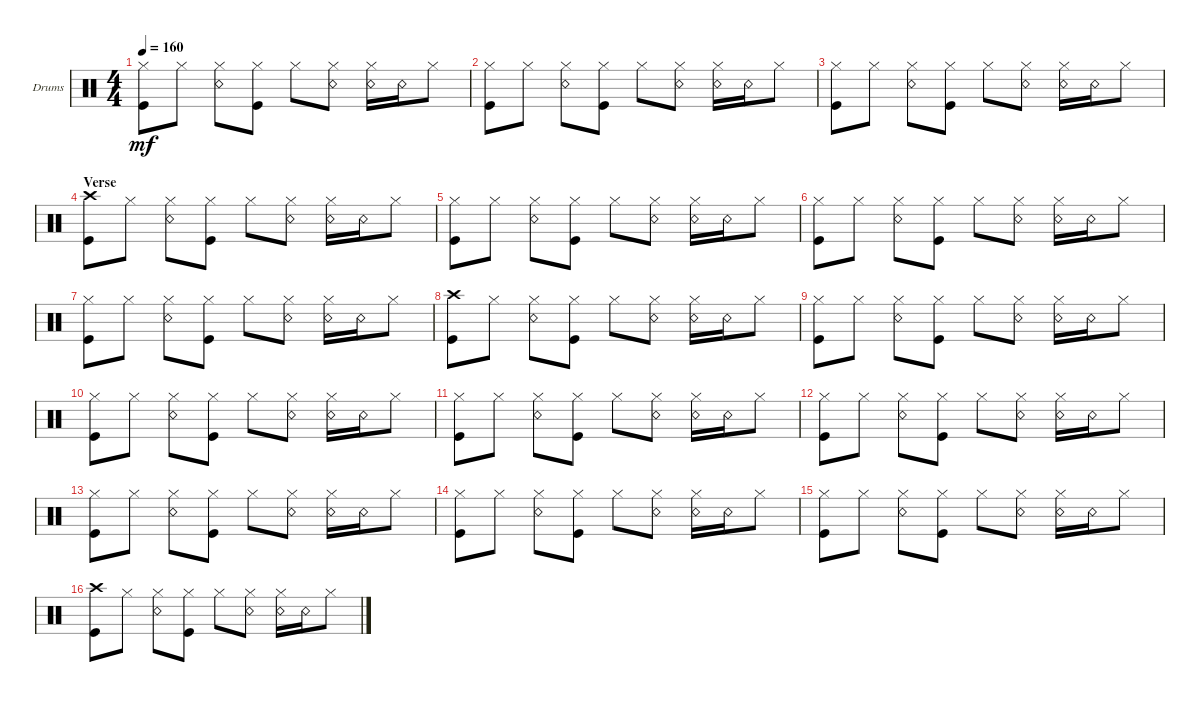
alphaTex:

\defaultSystemsLayout 4
\bracketExtendMode groupsimilarinstruments
\firstSystemTrackNameOrientation horizontal
\otherSystemsTrackNameOrientation horizontal
\track ("Drumkit" "Drums") {instrument percussion}
\staff {score}
\articulation defaults
\ts (4 4)
\tempo 160
\clef neutral
\ks c
("Kick (hit)" "Hi-Hat (closed)").8{dy mf} "Hi-Hat (closed)".8 ("Snare (rim shot)" "Hi-Hat (closed)").8 ("Hi-Hat (closed)" "Kick (hit)").8 "Hi-Hat (closed)".8 ("Snare (rim shot)" "Hi-Hat (closed)").8 ("Snare (rim shot)" "Hi-Hat (closed)").16 "Snare (rim shot)".16 "Hi-Hat (closed)".8 |
("Kick (hit)" "Hi-Hat (closed)").8 "Hi-Hat (closed)".8 ("Snare (rim shot)" "Hi-Hat (closed)").8 ("Hi-Hat (closed)" "Kick (hit)").8 "Hi-Hat (closed)".8 ("Snare (rim shot)" "Hi-Hat (closed)").8 ("Snare (rim shot)" "Hi-Hat (closed)").16 "Snare (rim shot)".16 "Hi-Hat (closed)".8 |
("Kick (hit)" "Hi-Hat (closed)").8 "Hi-Hat (closed)".8 ("Snare (rim shot)" "Hi-Hat (closed)").8 ("Hi-Hat (closed)" "Kick (hit)").8 "Hi-Hat (closed)".8 ("Snare (rim shot)" "Hi-Hat (closed)").8 ("Snare (rim shot)" "Hi-Hat (closed)").16 "Snare (rim shot)".16 "Hi-Hat (closed)".8 |
\section ("" "Verse")
("Kick (hit)" "Crash high (hit)").8 "Hi-Hat (closed)".8 ("Snare (rim shot)" "Hi-Hat (closed)").8 ("Hi-Hat (closed)" "Kick (hit)").8 "Hi-Hat (closed)".8 ("Snare (rim shot)" "Hi-Hat (closed)").8 ("Snare (rim shot)" "Hi-Hat (closed)").16 "Snare (rim shot)".16 "Hi-Hat (closed)".8 |
("Kick (hit)" "Hi-Hat (closed)").8 "Hi-Hat (closed)".8 ("Snare (rim shot)" "Hi-Hat (closed)").8 ("Hi-Hat (closed)" "Kick (hit)").8 "Hi-Hat (closed)".8 ("Snare (rim shot)" "Hi-Hat (closed)").8 ("Snare (rim shot)" "Hi-Hat (closed)").16 "Snare (rim shot)".16 "Hi-Hat (closed)".8 |
("Kick (hit)" "Hi-Hat (closed)").8 "Hi-Hat (closed)".8 ("Snare (rim shot)" "Hi-Hat (closed)").8 ("Hi-Hat (closed)" "Kick (hit)").8 "Hi-Hat (closed)".8 ("Snare (rim shot)" "Hi-Hat (closed)").8 ("Snare (rim shot)" "Hi-Hat (closed)").16 "Snare (rim shot)".16 "Hi-Hat (closed)".8 |
("Kick (hit)" "Hi-Hat (closed)").8 "Hi-Hat (closed)".8 ("Snare (rim shot)" "Hi-Hat (closed)").8 ("Hi-Hat (closed)" "Kick (hit)").8 "Hi-Hat (closed)".8 ("Snare (rim shot)" "Hi-Hat (closed)").8 ("Snare (rim shot)" "Hi-Hat (closed)").16 "Snare (rim shot)".16 "Hi-Hat (closed)".8 |
("Kick (hit)" "Crash high (hit)").8 "Hi-Hat (closed)".8 ("Snare (rim shot)" "Hi-Hat (closed)").8 ("Hi-Hat (closed)" "Kick (hit)").8 "Hi-Hat (closed)".8 ("Snare (rim shot)" "Hi-Hat (closed)").8 ("Snare (rim shot)" "Hi-Hat (closed)").16 "Snare (rim shot)".16 "Hi-Hat (closed)".8 |
("Kick (hit)" "Hi-Hat (closed)").8 "Hi-Hat (closed)".8 ("Snare (rim shot)" "Hi-Hat (closed)").8 ("Hi-Hat (closed)" "Kick (hit)").8 "Hi-Hat (closed)".8 ("Snare (rim shot)" "Hi-Hat (closed)").8 ("Snare (rim shot)" "Hi-Hat (closed)").16 "Snare (rim shot)".16 "Hi-Hat (closed)".8 |
("Kick (hit)" "Hi-Hat (closed)").8 "Hi-Hat (closed)".8 ("Snare (rim shot)" "Hi-Hat (closed)").8 ("Hi-Hat (closed)" "Kick (hit)").8 "Hi-Hat (closed)".8 ("Snare (rim shot)" "Hi-Hat (closed)").8 ("Snare (rim shot)" "Hi-Hat (closed)").16 "Snare (rim shot)".16 "Hi-Hat (closed)".8 |
("Kick (hit)" "Hi-Hat (closed)").8 "Hi-Hat (closed)".8 ("Snare (rim shot)" "Hi-Hat (closed)").8 ("Hi-Hat (closed)" "Kick (hit)").8 "Hi-Hat (closed)".8 ("Snare (rim shot)" "Hi-Hat (closed)").8 ("Snare (rim shot)" "Hi-Hat (closed)").16 "Snare (rim shot)".16 "Hi-Hat (closed)".8 |
("Kick (hit)" "Hi-Hat (closed)").8 "Hi-Hat (closed)".8 ("Snare (rim shot)" "Hi-Hat (closed)").8 ("Hi-Hat (closed)" "Kick (hit)").8 "Hi-Hat (closed)".8 ("Snare (rim shot)" "Hi-Hat (closed)").8 ("Snare (rim shot)" "Hi-Hat (closed)").16 "Snare (rim shot)".16 "Hi-Hat (closed)".8 |
("Kick (hit)" "Hi-Hat (closed)").8 "Hi-Hat (closed)".8 ("Snare (rim shot)" "Hi-Hat (closed)").8 ("Hi-Hat (closed)" "Kick (hit)").8 "Hi-Hat (closed)".8 ("Snare (rim shot)" "Hi-Hat (closed)").8 ("Snare (rim shot)" "Hi-Hat (closed)").16 "Snare (rim shot)".16 "Hi-Hat (closed)".8 |
("Kick (hit)" "Hi-Hat (closed)").8 "Hi-Hat (closed)".8 ("Snare (rim shot)" "Hi-Hat (closed)").8 ("Hi-Hat (closed)" "Kick (hit)").8 "Hi-Hat (closed)".8 ("Snare (rim shot)" "Hi-Hat (closed)").8 ("Snare (rim shot)" "Hi-Hat (closed)").16 "Snare (rim shot)".16 "Hi-Hat (closed)".8 |
("Kick (hit)" "Hi-Hat (closed)").8 "Hi-Hat (closed)".8 ("Snare (rim shot)" "Hi-Hat (closed)").8 ("Hi-Hat (closed)" "Kick (hit)").8 "Hi-Hat (closed)".8 ("Snare (rim shot)" "Hi-Hat (closed)").8 ("Snare (rim shot)" "Hi-Hat (closed)").16 "Snare (rim shot)".16 "Hi-Hat (closed)".8 |
("Kick (hit)" "Crash high (hit)").8 "Hi-Hat (closed)".8 ("Snare (rim shot)" "Hi-Hat (closed)").8 ("Hi-Hat (closed)" "Kick (hit)").8 "Hi-Hat (closed)".8 ("Snare (rim shot)" "Hi-Hat (closed)").8 ("Snare (rim shot)" "Hi-Hat (closed)").16 "Snare (rim shot)".16 "Hi-Hat (closed)".8
